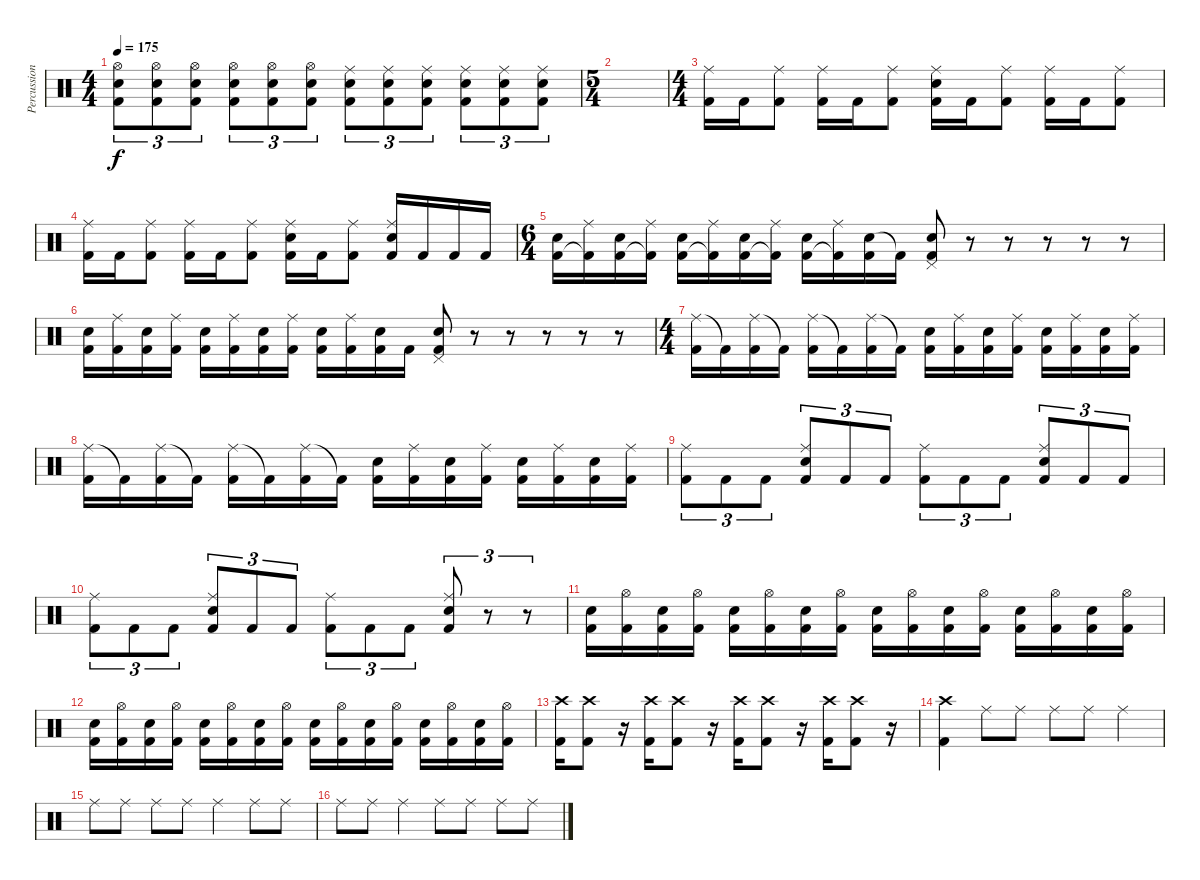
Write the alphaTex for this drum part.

\track ("Percussion" "Percussion") {instrument percussion}
\staff {score}
\articulation defaults
\ts (4 4)
\tempo 175
\clef neutral
\ks c
("Hi-Hat (open)" "Snare (hit) 2" "Kick (hit) 2").8{tu (3 2) dy f} ("Hi-Hat (open)" "Snare (hit) 2" "Kick (hit) 2").8{tu (3 2)} ("Hi-Hat (open)" "Snare (hit) 2" "Kick (hit) 2").8{tu (3 2)} ("Hi-Hat (open)" "Snare (hit) 2" "Kick (hit) 2").8{tu (3 2)} ("Hi-Hat (open)" "Snare (hit) 2" "Kick (hit) 2").8{tu (3 2)} ("Hi-Hat (open)" "Snare (hit) 2" "Kick (hit) 2").8{tu (3 2)} ("Ride (middle)" "Snare (hit) 2" "Kick (hit) 2").8{tu (3 2)} ("Ride (middle)" "Snare (hit) 2" "Kick (hit) 2").8{tu (3 2)} ("Ride (middle)" "Snare (hit) 2" "Kick (hit) 2").8{tu (3 2)} ("Ride (middle)" "Snare (hit) 2" "Kick (hit) 2").8{tu (3 2)} ("Ride (middle)" "Snare (hit) 2" "Kick (hit) 2").8{tu (3 2)} ("Ride (middle)" "Snare (hit) 2" "Kick (hit) 2").8{tu (3 2)} |
\ts (5 4)
|
\ts (4 4)
("Ride (middle)" "Kick (hit) 2").16 "Kick (hit) 2".16 ("Ride (middle)" "Kick (hit) 2").8 ("Ride (middle)" "Kick (hit) 2").16 "Kick (hit) 2".16 ("Ride (middle)" "Kick (hit) 2").8 ("Ride (middle)" "Electric Snare (hit)" "Kick (hit) 2").16 "Kick (hit) 2".16 ("Ride (middle)" "Kick (hit) 2").8 ("Ride (middle)" "Kick (hit) 2").16 "Kick (hit) 2".16 ("Ride (middle)" "Kick (hit) 2").8 |
("Ride (middle)" "Kick (hit) 2").16 "Kick (hit) 2".16 ("Ride (middle)" "Kick (hit) 2").8 ("Ride (middle)" "Kick (hit) 2").16 "Kick (hit) 2".16 ("Ride (middle)" "Kick (hit) 2").8 ("Ride (middle)" "Electric Snare (hit)" "Kick (hit) 2").16 "Kick (hit) 2".16 ("Ride (middle)" "Kick (hit) 2").8 ("Ride (middle)" "Electric Snare (hit)" "Kick (hit) 2").16 "Kick (hit) 2".16 "Kick (hit) 2".16 "Kick (hit) 2".16 |
\ts (6 4)
("Electric Snare (hit)" "Kick (hit) 2").16 ("Ride (middle)" "Kick (hit) 2"{t}).16 ("Electric Snare (hit)" "Kick (hit) 2").16 ("Ride (middle)" "Kick (hit) 2"{t}).16 ("Electric Snare (hit)" "Kick (hit) 2").16 ("Ride (middle)" "Kick (hit) 2"{t}).16 ("Electric Snare (hit)" "Kick (hit) 2").16 ("Ride (middle)" "Kick (hit) 2"{t}).16 ("Electric Snare (hit)" "Kick (hit) 2").16 ("Ride (middle)" "Kick (hit) 2"{t}).16 ("Electric Snare (hit)" "Kick (hit) 2").16 "Kick (hit) 2"{t}.16 ("Pedal Hi-Hat (hit)" "Electric Snare (hit)" "Kick (hit) 2").8 r.8 r.8 r.8 r.8 r.8 |
("Electric Snare (hit)" "Kick (hit) 2").16 ("Ride (middle)" "Kick (hit) 2").16 ("Electric Snare (hit)" "Kick (hit) 2").16 ("Ride (middle)" "Kick (hit) 2").16 ("Electric Snare (hit)" "Kick (hit) 2").16 ("Ride (middle)" "Kick (hit) 2").16 ("Electric Snare (hit)" "Kick (hit) 2").16 ("Ride (middle)" "Kick (hit) 2").16 ("Electric Snare (hit)" "Kick (hit) 2").16 ("Ride (middle)" "Kick (hit) 2").16 ("Electric Snare (hit)" "Kick (hit) 2").16 "Kick (hit) 2".16 ("Pedal Hi-Hat (hit)" "Electric Snare (hit)" "Kick (hit) 2").8 r.8 r.8 r.8 r.8 r.8 |
\ts (4 4)
("Ride (middle)" "Kick (hit) 2").16 "Kick (hit) 2"{t}.16 ("Ride (middle)" "Kick (hit) 2").16 "Kick (hit) 2"{t}.16 ("Ride (middle)" "Kick (hit) 2").16 "Kick (hit) 2"{t}.16 ("Ride (middle)" "Kick (hit) 2").16 "Kick (hit) 2"{t}.16 ("Electric Snare (hit)" "Kick (hit) 2").16 ("Ride (middle)" "Kick (hit) 2").16 ("Electric Snare (hit)" "Kick (hit) 2").16 ("Ride (middle)" "Kick (hit) 2").16 ("Electric Snare (hit)" "Kick (hit) 2").16 ("Ride (middle)" "Kick (hit) 2").16 ("Electric Snare (hit)" "Kick (hit) 2").16 ("Ride (middle)" "Kick (hit) 2").16 |
("Ride (middle)" "Kick (hit) 2").16 "Kick (hit) 2"{t}.16 ("Ride (middle)" "Kick (hit) 2").16 "Kick (hit) 2"{t}.16 ("Ride (middle)" "Kick (hit) 2").16 "Kick (hit) 2"{t}.16 ("Ride (middle)" "Kick (hit) 2").16 "Kick (hit) 2"{t}.16 ("Electric Snare (hit)" "Kick (hit) 2").16 ("Ride (middle)" "Kick (hit) 2").16 ("Electric Snare (hit)" "Kick (hit) 2").16 ("Ride (middle)" "Kick (hit) 2").16 ("Electric Snare (hit)" "Kick (hit) 2").16 ("Ride (middle)" "Kick (hit) 2").16 ("Electric Snare (hit)" "Kick (hit) 2").16 ("Ride (middle)" "Kick (hit) 2").16 |
("Ride (middle)" "Kick (hit) 2").8{tu (3 2)} "Kick (hit) 2".8{tu (3 2)} "Kick (hit) 2".8{tu (3 2)} ("Ride (middle)" "Electric Snare (hit)" "Kick (hit) 2").8{tu (3 2)} "Kick (hit) 2".8{tu (3 2)} "Kick (hit) 2".8{tu (3 2)} ("Ride (middle)" "Kick (hit) 2").8{tu (3 2)} "Kick (hit) 2".8{tu (3 2)} "Kick (hit) 2".8{tu (3 2)} ("Ride (middle)" "Electric Snare (hit)" "Kick (hit) 2").8{tu (3 2)} "Kick (hit) 2".8{tu (3 2)} "Kick (hit) 2".8{tu (3 2)} |
("Ride (middle)" "Kick (hit) 2").8{tu (3 2)} "Kick (hit) 2".8{tu (3 2)} "Kick (hit) 2".8{tu (3 2)} ("Ride (middle)" "Electric Snare (hit)" "Kick (hit) 2").8{tu (3 2)} "Kick (hit) 2".8{tu (3 2)} "Kick (hit) 2".8{tu (3 2)} ("Ride (middle)" "Kick (hit) 2").8{tu (3 2)} "Kick (hit) 2".8{tu (3 2)} "Kick (hit) 2".8{tu (3 2)} ("Ride (middle)" "Electric Snare (hit)" "Kick (hit) 2").8{tu (3 2)} r.8{tu (3 2)} r.8{tu (3 2)} |
("Electric Snare (hit)" "Kick (hit) 2").16 ("Hi-Hat (open)" "Kick (hit) 2").16 ("Electric Snare (hit)" "Kick (hit) 2").16 ("Hi-Hat (open)" "Kick (hit) 2").16 ("Electric Snare (hit)" "Kick (hit) 2").16 ("Hi-Hat (open)" "Kick (hit) 2").16 ("Electric Snare (hit)" "Kick (hit) 2").16 ("Hi-Hat (open)" "Kick (hit) 2").16 ("Electric Snare (hit)" "Kick (hit) 2").16 ("Hi-Hat (open)" "Kick (hit) 2").16 ("Electric Snare (hit)" "Kick (hit) 2").16 ("Hi-Hat (open)" "Kick (hit) 2").16 ("Electric Snare (hit)" "Kick (hit) 2").16 ("Hi-Hat (open)" "Kick (hit) 2").16 ("Electric Snare (hit)" "Kick (hit) 2").16 ("Hi-Hat (open)" "Kick (hit) 2").16 |
("Electric Snare (hit)" "Kick (hit) 2").16 ("Hi-Hat (open)" "Kick (hit) 2").16 ("Electric Snare (hit)" "Kick (hit) 2").16 ("Hi-Hat (open)" "Kick (hit) 2").16 ("Electric Snare (hit)" "Kick (hit) 2").16 ("Hi-Hat (open)" "Kick (hit) 2").16 ("Electric Snare (hit)" "Kick (hit) 2").16 ("Hi-Hat (open)" "Kick (hit) 2").16 ("Electric Snare (hit)" "Kick (hit) 2").16 ("Hi-Hat (open)" "Kick (hit) 2").16 ("Electric Snare (hit)" "Kick (hit) 2").16 ("Hi-Hat (open)" "Kick (hit) 2").16 ("Electric Snare (hit)" "Kick (hit) 2").16 ("Hi-Hat (open)" "Kick (hit) 2").16 ("Electric Snare (hit)" "Kick (hit) 2").16 ("Hi-Hat (open)" "Kick (hit) 2").16 |
("Crash high (hit)" "Kick (hit) 2").16 ("Crash high (hit)" "Kick (hit) 2").8 r.16 ("Crash high (hit)" "Kick (hit) 2").16 ("Crash high (hit)" "Kick (hit) 2").8 r.16 ("Crash high (hit)" "Kick (hit) 2").16 ("Crash high (hit)" "Kick (hit) 2").8 r.16 ("Crash high (hit)" "Kick (hit) 2").16 ("Crash high (hit)" "Kick (hit) 2").8 r.16 |
("Crash high (hit)" "Kick (hit) 2").4 "Ride (middle)".8 "Ride (middle)".8 "Ride (middle)".8 "Ride (middle)".8 "Ride (middle)".4 |
"Ride (middle)".8 "Ride (middle)".8 "Ride (middle)".8 "Ride (middle)".8 "Ride (middle)".4 "Ride (middle)".8 "Ride (middle)".8 |
"Ride (middle)".8 "Ride (middle)".8 "Ride (middle)".4 "Ride (middle)".8 "Ride (middle)".8 "Ride (middle)".8 "Ride (middle)".8
